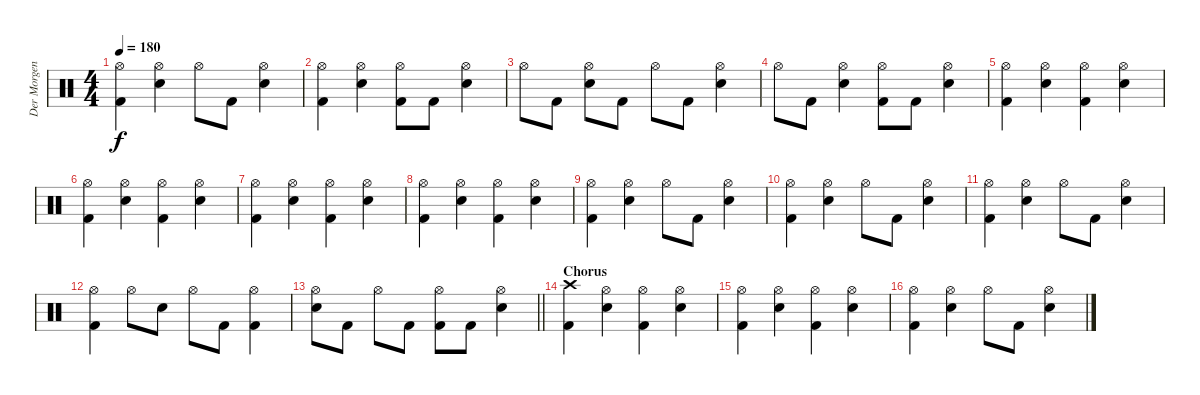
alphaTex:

\track ("Der Morgenstern" "Der Morgen") {instrument percussion}
\staff {score}
\articulation defaults
\ts (4 4)
\tempo 180
\clef neutral
\ks c
("Hi-Hat (open)" "Kick (hit) 2").4{dy f} ("Hi-Hat (open)" "Electric Snare (hit)").4 "Hi-Hat (open)".8 "Kick (hit) 2".8 ("Hi-Hat (open)" "Electric Snare (hit)").4 |
("Hi-Hat (open)" "Kick (hit) 2").4 ("Hi-Hat (open)" "Electric Snare (hit)").4 ("Hi-Hat (open)" "Kick (hit) 2").8 "Kick (hit) 2".8 ("Hi-Hat (open)" "Electric Snare (hit)").4 |
"Hi-Hat (open)".8 "Kick (hit) 2".8 ("Hi-Hat (open)" "Electric Snare (hit)").8 "Kick (hit) 2".8 "Hi-Hat (open)".8 "Kick (hit) 2".8 ("Hi-Hat (open)" "Electric Snare (hit)").4 |
"Hi-Hat (open)".8 "Kick (hit) 2".8 ("Hi-Hat (open)" "Electric Snare (hit)").4 ("Hi-Hat (open)" "Kick (hit) 2").8 "Kick (hit) 2".8 ("Hi-Hat (open)" "Electric Snare (hit)").4 |
("Hi-Hat (open)" "Kick (hit) 2").4 ("Hi-Hat (open)" "Electric Snare (hit)").4 ("Hi-Hat (open)" "Kick (hit) 2").4 ("Hi-Hat (open)" "Electric Snare (hit)").4 |
("Hi-Hat (open)" "Kick (hit) 2").4 ("Hi-Hat (open)" "Electric Snare (hit)").4 ("Hi-Hat (open)" "Kick (hit) 2").4 ("Hi-Hat (open)" "Electric Snare (hit)").4 |
("Hi-Hat (open)" "Kick (hit) 2").4 ("Hi-Hat (open)" "Electric Snare (hit)").4 ("Hi-Hat (open)" "Kick (hit) 2").4 ("Hi-Hat (open)" "Electric Snare (hit)").4 |
("Hi-Hat (open)" "Kick (hit) 2").4 ("Hi-Hat (open)" "Electric Snare (hit)").4 ("Hi-Hat (open)" "Kick (hit) 2").4 ("Hi-Hat (open)" "Electric Snare (hit)").4 |
("Hi-Hat (open)" "Kick (hit) 2").4 ("Hi-Hat (open)" "Electric Snare (hit)").4 "Hi-Hat (open)".8 "Kick (hit) 2".8 ("Hi-Hat (open)" "Electric Snare (hit)").4 |
("Hi-Hat (open)" "Kick (hit) 2").4 ("Hi-Hat (open)" "Electric Snare (hit)").4 "Hi-Hat (open)".8 "Kick (hit) 2".8 ("Hi-Hat (open)" "Electric Snare (hit)").4 |
("Hi-Hat (open)" "Kick (hit) 2").4 ("Hi-Hat (open)" "Electric Snare (hit)").4 "Hi-Hat (open)".8 "Kick (hit) 2".8 ("Hi-Hat (open)" "Electric Snare (hit)").4 |
("Hi-Hat (open)" "Kick (hit) 2").4 "Hi-Hat (open)".8 "Electric Snare (hit)".8 "Hi-Hat (open)".8 "Kick (hit) 2".8 ("Hi-Hat (open)" "Kick (hit) 2").4 |
\barLineRight lightlight
("Hi-Hat (open)" "Electric Snare (hit)").8 "Kick (hit) 2".8 "Hi-Hat (open)".8 "Kick (hit) 2".8 ("Hi-Hat (open)" "Kick (hit) 2").8 "Kick (hit) 2".8 ("Hi-Hat (open)" "Electric Snare (hit)").4 |
\section ("" "Chorus")
("Crash high (hit)" "Kick (hit) 2").4 ("Hi-Hat (open)" "Electric Snare (hit)").4 ("Hi-Hat (open)" "Kick (hit) 2").4 ("Hi-Hat (open)" "Electric Snare (hit)").4 |
("Hi-Hat (open)" "Kick (hit) 2").4 ("Hi-Hat (open)" "Electric Snare (hit)").4 ("Hi-Hat (open)" "Kick (hit) 2").4 ("Hi-Hat (open)" "Electric Snare (hit)").4 |
("Hi-Hat (open)" "Kick (hit) 2").4 ("Hi-Hat (open)" "Electric Snare (hit)").4 "Hi-Hat (open)".8 "Kick (hit) 2".8 ("Hi-Hat (open)" "Electric Snare (hit)").4
